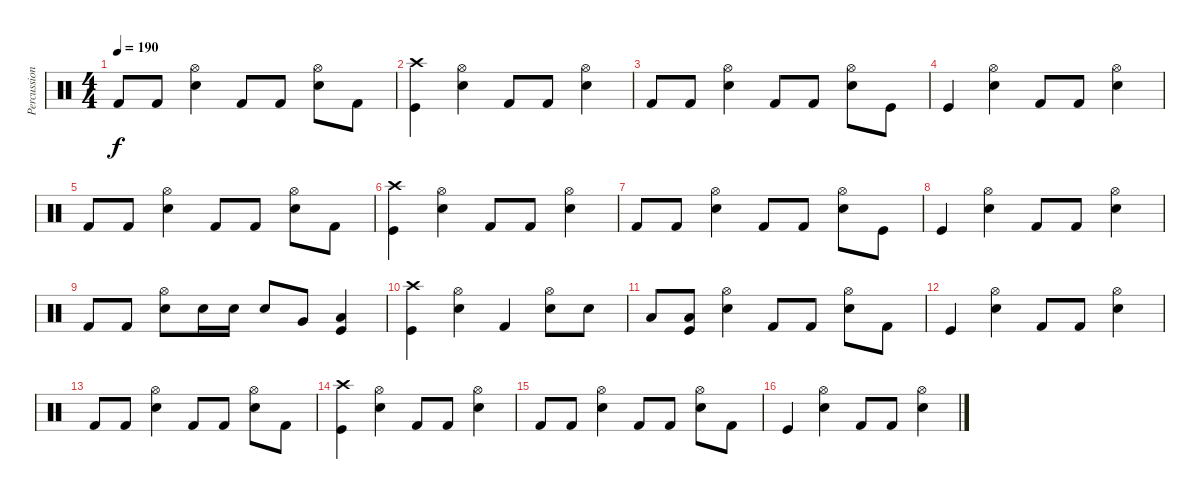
\track ("Percussions" "Percussion") {instrument percussion}
\staff {score}
\articulation defaults
\ts (4 4)
\tempo 190
\clef neutral
\ks c "Kick (hit) 2".8{dy f} "Kick (hit) 2".8
("Hi-Hat (open)" "Snare (hit) 2").4 "Kick (hit) 2".8 "Kick (hit) 2".8 ("Hi-Hat (open)" "Snare (hit) 2").8 "Kick (hit) 2".8 |
("Crash high (hit)" "Kick (hit)").4 ("Hi-Hat (open)" "Snare (hit) 2").4 "Kick (hit) 2".8 "Kick (hit) 2".8 ("Hi-Hat (open)" "Snare (hit) 2").4 |
"Kick (hit) 2".8 "Kick (hit) 2".8 ("Hi-Hat (open)" "Snare (hit) 2").4 "Kick (hit) 2".8 "Kick (hit) 2".8 ("Hi-Hat (open)" "Snare (hit) 2").8 "Kick (hit)".8 |
"Kick (hit)".4 ("Hi-Hat (open)" "Snare (hit) 2").4 "Kick (hit) 2".8 "Kick (hit) 2".8 ("Hi-Hat (open)" "Snare (hit) 2").4 |
"Kick (hit) 2".8 "Kick (hit) 2".8 ("Hi-Hat (open)" "Snare (hit) 2").4 "Kick (hit) 2".8 "Kick (hit) 2".8 ("Hi-Hat (open)" "Snare (hit) 2").8 "Kick (hit) 2".8 |
("Crash high (hit)" "Kick (hit)").4 ("Hi-Hat (open)" "Snare (hit) 2").4 "Kick (hit) 2".8 "Kick (hit) 2".8 ("Hi-Hat (open)" "Snare (hit) 2").4 |
"Kick (hit) 2".8 "Kick (hit) 2".8 ("Hi-Hat (open)" "Snare (hit) 2").4 "Kick (hit) 2".8 "Kick (hit) 2".8 ("Hi-Hat (open)" "Snare (hit) 2").8 "Kick (hit)".8 |
"Kick (hit)".4 ("Hi-Hat (open)" "Snare (hit) 2").4 "Kick (hit) 2".8 "Kick (hit) 2".8 ("Hi-Hat (open)" "Snare (hit) 2").4 |
"Kick (hit) 2".8 "Kick (hit) 2".8 ("Hi-Hat (open)" "Snare (hit) 2").8 "Electric Snare (hit)".16 "Electric Snare (hit)".16 "Electric Snare (hit)".8 "Very Low Tom (hit)".8 ("Low Floor Tom (hit)" "Kick (hit)").4 |
("Crash high (hit)" "Kick (hit)").4 ("Hi-Hat (open)" "Snare (hit) 2").4 "Kick (hit) 2".4 ("Hi-Hat (open)" "Snare (hit) 2").8 "Snare (hit) 2".8 |
"Low Tom (hit)".8 ("Low Floor Tom (hit)" "Kick (hit)").8 ("Hi-Hat (open)" "Snare (hit) 2").4 "Kick (hit) 2".8 "Kick (hit) 2".8 ("Hi-Hat (open)" "Snare (hit) 2").8 "Kick (hit) 2".8 |
"Kick (hit)".4 ("Hi-Hat (open)" "Snare (hit) 2").4 "Kick (hit) 2".8 "Kick (hit) 2".8 ("Hi-Hat (open)" "Snare (hit) 2").4 |
"Kick (hit) 2".8 "Kick (hit) 2".8 ("Hi-Hat (open)" "Snare (hit) 2").4 "Kick (hit) 2".8 "Kick (hit) 2".8 ("Hi-Hat (open)" "Snare (hit) 2").8 "Kick (hit) 2".8 |
("Crash high (hit)" "Kick (hit)").4 ("Hi-Hat (open)" "Snare (hit) 2").4 "Kick (hit) 2".8 "Kick (hit) 2".8 ("Hi-Hat (open)" "Snare (hit) 2").4 |
"Kick (hit) 2".8 "Kick (hit) 2".8 ("Hi-Hat (open)" "Snare (hit) 2").4 "Kick (hit) 2".8 "Kick (hit) 2".8 ("Hi-Hat (open)" "Snare (hit) 2").8 "Kick (hit) 2".8 |
"Kick (hit)".4 ("Hi-Hat (open)" "Snare (hit) 2").4 "Kick (hit) 2".8 "Kick (hit) 2".8 ("Hi-Hat (open)" "Snare (hit) 2").4
